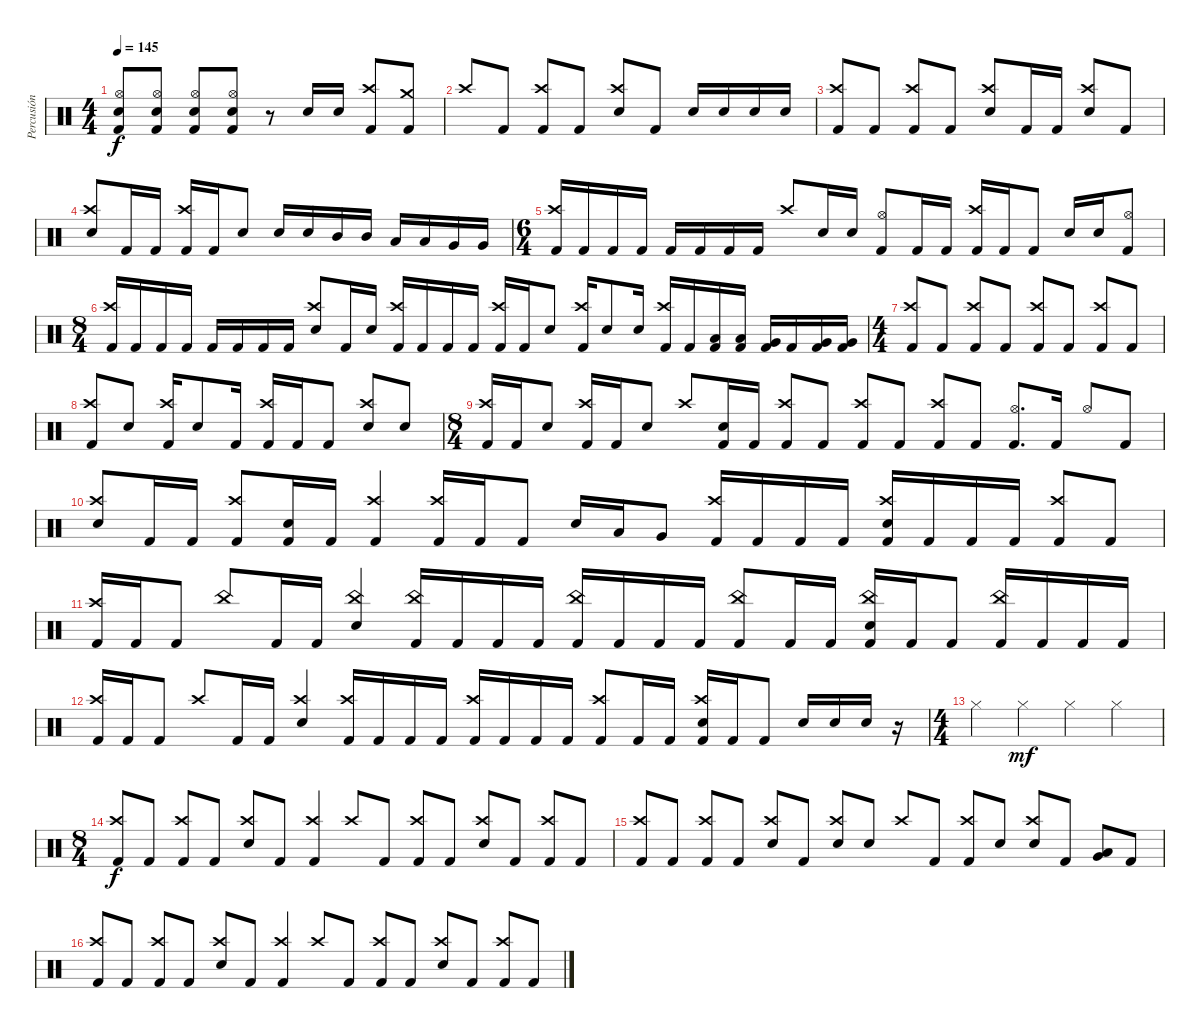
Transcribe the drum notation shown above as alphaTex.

\track ("Percusión" "Percusión") {instrument percussion}
\staff {score}
\articulation defaults
\ts (4 4)
\tempo 145
\clef neutral
\ks c
("Hi-Hat (open)" "Electric Snare (hit)" "Kick (hit) 2").8{dy f beam Up} ("Hi-Hat (open)" "Electric Snare (hit)" "Kick (hit) 2").8{beam Up} ("Hi-Hat (open)" "Electric Snare (hit)" "Kick (hit) 2").8{beam Up} ("Hi-Hat (open)" "Electric Snare (hit)" "Kick (hit) 2").8{beam Up} r.8 "Electric Snare (hit)".16{beam Up} "Electric Snare (hit)".16{beam Up} ("Crash high (hit)" "Kick (hit) 2").8{beam Up} ("Crash medium (hit)" "Kick (hit) 2").8{beam Up} |
"Crash high (hit)".8{beam Up} "Kick (hit) 2".8{beam Up} ("Crash high (hit)" "Kick (hit) 2").8{beam Up} "Kick (hit) 2".8{beam Up} ("Crash high (hit)" "Electric Snare (hit)").8{beam Up} "Kick (hit) 2".8{beam Up} "Electric Snare (hit)".16{beam Up} "Electric Snare (hit)".16{beam Up} "Electric Snare (hit)".16{beam Up} "Electric Snare (hit)".16{beam Up} |
("Crash high (hit)" "Kick (hit) 2").8{beam Up} "Kick (hit) 2".8{beam Up} ("Crash high (hit)" "Kick (hit) 2").8{beam Up} "Kick (hit) 2".8{beam Up} ("Crash high (hit)" "Electric Snare (hit)").8{beam Up} "Kick (hit) 2".16{beam Up} "Kick (hit) 2".16{beam Up} ("Crash high (hit)" "Electric Snare (hit)").8{beam Up} "Kick (hit) 2".8{beam Up} |
("Crash high (hit)" "Electric Snare (hit)").8{beam Up} "Kick (hit) 2".16{beam Up} "Kick (hit) 2".16{beam Up} ("Crash high (hit)" "Kick (hit) 2").16{beam Up} "Kick (hit) 2".16{beam Up} "Snare (hit) 2".8{beam Up} "Electric Snare (hit)".16{beam Up} "Electric Snare (hit)".16{beam Up} "Mid Tom (hit)".16{beam Up} "Mid Tom (hit)".16{beam Up} "Low Tom (hit)".16 "Low Tom (hit)".16 "Very Low Tom (hit)".16 "Very Low Tom (hit)".16 |
\ts (6 4)
("Crash high (hit)" "Kick (hit) 2").16{beam Up} "Kick (hit) 2".16{beam Up} "Kick (hit) 2".16{beam Up} "Kick (hit) 2".16{beam Up beam split} "Kick (hit) 2".16 "Kick (hit) 2".16 "Kick (hit) 2".16 "Kick (hit) 2".16{beam split} "Crash high (hit)".8{beam Up} "Electric Snare (hit)".16{beam Up} "Electric Snare (hit)".16{beam Up} ("Hi-Hat (open)" "Kick (hit) 2").8{beam Up} "Kick (hit) 2".16{beam Up} "Kick (hit) 2".16{beam Up beam split} ("Crash high (hit)" "Kick (hit) 2").16{beam Up} "Kick (hit) 2".16{beam Up} "Kick (hit) 2".8{beam Up beam split} "Electric Snare (hit)".16{beam Up} "Electric Snare (hit)".16{beam Up} ("Hi-Hat (open)" "Kick (hit) 2").8{beam Up} |
\ts (8 4)
("Crash high (hit)" "Kick (hit) 2").16{beam Up} "Kick (hit) 2".16{beam Up} "Kick (hit) 2".16{beam Up} "Kick (hit) 2".16{beam Up beam split} "Kick (hit) 2".16 "Kick (hit) 2".16 "Kick (hit) 2".16 "Kick (hit) 2".16{beam split} ("Crash high (hit)" "Electric Snare (hit)").8{beam Up} "Kick (hit) 2".16{beam Up} "Snare (hit) 2".16{beam Up} ("Crash high (hit)" "Kick (hit) 2").16{beam Up} "Kick (hit) 2".16{beam Up} "Kick (hit) 2".16{beam Up} "Kick (hit) 2".16{beam Up beam split} ("Crash high (hit)" "Kick (hit) 2").16{beam Up} "Kick (hit) 2".16{beam Up} "Electric Snare (hit)".8{beam Up beam split} ("Crash high (hit)" "Kick (hit) 2").16{beam Up} "Electric Snare (hit)".8{beam Up} "Electric Snare (hit)".16{beam Up} ("Crash high (hit)" "Kick (hit) 2").16{beam Up} "Kick (hit) 2".16{beam Up} ("Low Tom (hit)" "Kick (hit) 2").16{beam Up} ("Low Tom (hit)" "Kick (hit) 2").16{beam Up} ("Very Low Tom (hit)" "Kick (hit) 2").16{beam Up} "Kick (hit) 2".16{beam Up} ("Very Low Tom (hit)" "Kick (hit) 2").16{beam Up} ("Very Low Tom (hit)" "Kick (hit) 2").16{beam Up} |
\ts (4 4)
("Crash high (hit)" "Kick (hit) 2").8{beam Up} "Kick (hit) 2".8{beam Up} ("Crash high (hit)" "Kick (hit) 2").8{beam Up} "Kick (hit) 2".8{beam Up} ("Crash high (hit)" "Kick (hit) 2").8{beam Up} "Kick (hit) 2".8{beam Up} ("Crash high (hit)" "Kick (hit) 2").8{beam Up} "Kick (hit) 2".8{beam Up} |
("Crash high (hit)" "Kick (hit) 2").8{beam Up} "Electric Snare (hit)".8{beam Up} ("Crash high (hit)" "Kick (hit) 2").16{beam Up} "Electric Snare (hit)".8{beam Up} "Kick (hit) 2".16{beam Up} ("Crash high (hit)" "Kick (hit) 2").16{beam Up} "Kick (hit) 2".16{beam Up} "Kick (hit) 2".8{beam Up} ("Crash high (hit)" "Electric Snare (hit)").8{beam Up} "Electric Snare (hit)".8{beam Up} |
\ts (8 4)
("Crash high (hit)" "Kick (hit) 2").16{beam Up} "Kick (hit) 2".16{beam Up} "Electric Snare (hit)".8{beam Up} ("Crash high (hit)" "Kick (hit) 2").16{beam Up} "Kick (hit) 2".16{beam Up} "Electric Snare (hit)".8{beam Up} "Crash high (hit)".8{beam Up} ("Electric Snare (hit)" "Kick (hit) 2").16{beam Up} "Kick (hit) 2".16{beam Up} ("Crash high (hit)" "Kick (hit) 2").8{beam Up} "Kick (hit) 2".8{beam Up} ("Crash high (hit)" "Kick (hit) 2").8{beam Up} "Kick (hit) 2".8{beam Up} ("Crash high (hit)" "Kick (hit) 2").8{beam Up} "Kick (hit) 2".8{beam Up} ("Hi-Hat (open)" "Kick (hit) 2").8{d beam Up} "Kick (hit) 2".16{beam Up} "Hi-Hat (open)".8{beam Up} "Kick (hit) 2".8{beam Up} |
("Crash high (hit)" "Electric Snare (hit)").8{beam Up} "Kick (hit) 2".16{beam Up} "Kick (hit) 2".16{beam Up} ("Crash high (hit)" "Kick (hit) 2").8{beam Up} ("Electric Snare (hit)" "Kick (hit) 2").16{beam Up} "Kick (hit) 2".16{beam Up} ("Crash high (hit)" "Kick (hit) 2").4{beam Up} ("Crash high (hit)" "Kick (hit) 2").16{beam Up} "Kick (hit) 2".16{beam Up} "Kick (hit) 2".8{beam Up} "Electric Snare (hit)".16{beam Up} "Low Tom (hit)".16{beam Up} "Very Low Tom (hit)".8{beam Up} ("Crash high (hit)" "Kick (hit) 2").16{beam Up} "Kick (hit) 2".16{beam Up} "Kick (hit) 2".16{beam Up} "Kick (hit) 2".16{beam Up} ("Crash high (hit)" "Electric Snare (hit)" "Kick (hit) 2").16{beam Up} "Kick (hit) 2".16{beam Up} "Kick (hit) 2".16{beam Up} "Kick (hit) 2".16{beam Up} ("Crash high (hit)" "Kick (hit) 2").8{beam Up} "Kick (hit) 2".8{beam Up} |
("Crash high (hit)" "Kick (hit) 2").16{beam Up} "Kick (hit) 2".16{beam Up} "Kick (hit) 2".8{beam Up} "China (hit)".8{beam Up} "Kick (hit) 2".16{beam Up} "Kick (hit) 2".16{beam Up} ("China (hit)" "Electric Snare (hit)").4{beam Up} ("China (hit)" "Kick (hit) 2").16{beam Up} "Kick (hit) 2".16{beam Up} "Kick (hit) 2".16{beam Up} "Kick (hit) 2".16{beam Up} ("China (hit)" "Kick (hit) 2").16{beam Up} "Kick (hit) 2".16{beam Up} "Kick (hit) 2".16{beam Up} "Kick (hit) 2".16{beam Up} ("China (hit)" "Kick (hit) 2").8{beam Up} "Kick (hit) 2".16{beam Up} "Kick (hit) 2".16{beam Up} ("China (hit)" "Electric Snare (hit)" "Kick (hit) 2").16{beam Up} "Kick (hit) 2".16{beam Up} "Kick (hit) 2".8{beam Up} ("China (hit)" "Kick (hit) 2").16{beam Up} "Kick (hit) 2".16{beam Up} "Kick (hit) 2".16{beam Up} "Kick (hit) 2".16{beam Up} |
("Crash high (hit)" "Kick (hit) 2").16{beam Up} "Kick (hit) 2".16{beam Up} "Kick (hit) 2".8{beam Up} "Crash high (hit)".8{beam Up} "Kick (hit) 2".16{beam Up} "Kick (hit) 2".16{beam Up} ("Crash high (hit)" "Electric Snare (hit)").4{beam Up} ("Crash high (hit)" "Kick (hit) 2").16{beam Up} "Kick (hit) 2".16{beam Up} "Kick (hit) 2".16{beam Up} "Kick (hit) 2".16{beam Up} ("Crash high (hit)" "Kick (hit) 2").16{beam Up} "Kick (hit) 2".16{beam Up} "Kick (hit) 2".16{beam Up} "Kick (hit) 2".16{beam Up} ("Crash high (hit)" "Kick (hit) 2").8{beam Up} "Kick (hit) 2".16{beam Up} "Kick (hit) 2".16{beam Up} ("Crash high (hit)" "Electric Snare (hit)" "Kick (hit) 2").16{beam Up} "Kick (hit) 2".16{beam Up} "Kick (hit) 2".8{beam Up} "Electric Snare (hit)".16{beam Up} "Electric Snare (hit)".16{beam Up} "Electric Snare (hit)".16{beam Up} r.16 |
\ts (4 4)
"Hi-Hat (closed)".4 "Hi-Hat (closed)".4{dy mf} "Hi-Hat (closed)".4 "Hi-Hat (closed)".4 |
\ts (8 4)
("Crash high (hit)" "Kick (hit) 2").8{dy f beam Up} "Kick (hit) 2".8{beam Up} ("Crash high (hit)" "Kick (hit) 2").8{beam Up} "Kick (hit) 2".8{beam Up} ("Crash high (hit)" "Electric Snare (hit)").8{beam Up} "Kick (hit) 2".8{beam Up} ("Crash high (hit)" "Kick (hit) 2").4{beam Up} "Crash high (hit)".8{beam Up} "Kick (hit) 2".8{beam Up} ("Crash high (hit)" "Kick (hit) 2").8{beam Up} "Kick (hit) 2".8{beam Up} ("Crash high (hit)" "Electric Snare (hit)").8{beam Up} "Kick (hit) 2".8{beam Up} ("Crash high (hit)" "Kick (hit) 2").8{beam Up} "Kick (hit) 2".8{beam Up} |
("Crash high (hit)" "Kick (hit) 2").8{beam Up} "Kick (hit) 2".8{beam Up} ("Crash high (hit)" "Kick (hit) 2").8{beam Up} "Kick (hit) 2".8{beam Up} ("Crash high (hit)" "Electric Snare (hit)").8{beam Up} "Kick (hit) 2".8{beam Up} ("Crash high (hit)" "Electric Snare (hit)").8{beam Up} "Electric Snare (hit)".8{beam Up} "Crash high (hit)".8{beam Up} "Kick (hit) 2".8{beam Up} ("Crash high (hit)" "Kick (hit) 2").8{beam Up} "Electric Snare (hit)".8{beam Up} ("Crash high (hit)" "Electric Snare (hit)").8{beam Up} "Kick (hit) 2".8{beam Up} ("Low Tom (hit)" "Very Low Tom (hit)").8{beam Up} "Kick (hit) 2".8{beam Up} |
("Crash high (hit)" "Kick (hit) 2").8{beam Up} "Kick (hit) 2".8{beam Up} ("Crash high (hit)" "Kick (hit) 2").8{beam Up} "Kick (hit) 2".8{beam Up} ("Crash high (hit)" "Electric Snare (hit)").8{beam Up} "Kick (hit) 2".8{beam Up} ("Crash high (hit)" "Kick (hit) 2").4{beam Up} "Crash high (hit)".8{beam Up} "Kick (hit) 2".8{beam Up} ("Crash high (hit)" "Kick (hit) 2").8{beam Up} "Kick (hit) 2".8{beam Up} ("Crash high (hit)" "Electric Snare (hit)").8{beam Up} "Kick (hit) 2".8{beam Up} ("Crash high (hit)" "Kick (hit) 2").8{beam Up} "Kick (hit) 2".8{beam Up}
